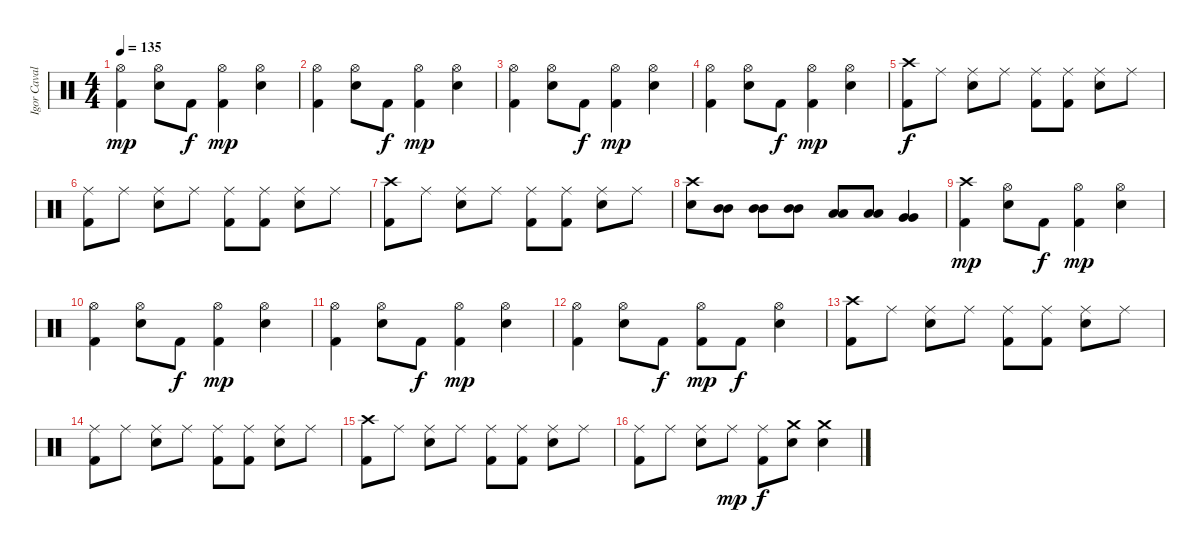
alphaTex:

\track ("Igor Cavalera" "Igor Caval") {instrument percussion}
\staff {score}
\articulation defaults
\ts (4 4)
\tempo 135
\clef neutral
\ks c
("Hi-Hat (open)" "Kick (hit) 2").4{dy mp} ("Hi-Hat (open)" "Snare (hit) 2").8 "Kick (hit) 2".8{dy f} ("Hi-Hat (open)" "Kick (hit) 2").4{dy mp} ("Hi-Hat (open)" "Snare (hit) 2").4 |
("Hi-Hat (open)" "Kick (hit) 2").4 ("Hi-Hat (open)" "Snare (hit) 2").8 "Kick (hit) 2".8{dy f} ("Hi-Hat (open)" "Kick (hit) 2").4{dy mp} ("Hi-Hat (open)" "Snare (hit) 2").4 |
("Hi-Hat (open)" "Kick (hit) 2").4 ("Hi-Hat (open)" "Snare (hit) 2").8 "Kick (hit) 2".8{dy f} ("Hi-Hat (open)" "Kick (hit) 2").4{dy mp} ("Hi-Hat (open)" "Snare (hit) 2").4 |
("Hi-Hat (open)" "Kick (hit) 2").4 ("Hi-Hat (open)" "Snare (hit) 2").8 "Kick (hit) 2".8{dy f} ("Hi-Hat (open)" "Kick (hit) 2").4{dy mp} ("Hi-Hat (open)" "Snare (hit) 2").4 |
("Crash high (hit)" "Kick (hit) 2").8{dy f} "Ride (middle)".8 ("Ride (middle)" "Snare (hit) 2").8 "Ride (middle)".8 ("Ride (middle)" "Kick (hit) 2").8 ("Ride (middle)" "Kick (hit) 2").8 ("Ride (middle)" "Snare (hit) 2").8 "Ride (middle)".8 |
("Ride (middle)" "Kick (hit) 2").8 "Ride (middle)".8 ("Ride (middle)" "Snare (hit) 2").8 "Ride (middle)".8 ("Ride (middle)" "Kick (hit) 2").8 ("Ride (middle)" "Kick (hit) 2").8 ("Ride (middle)" "Snare (hit) 2").8 "Ride (middle)".8 |
("Crash high (hit)" "Kick (hit) 2").8 "Ride (middle)".8 ("Ride (middle)" "Snare (hit) 2").8 "Ride (middle)".8 ("Ride (middle)" "Kick (hit) 2").8 ("Ride (middle)" "Kick (hit) 2").8 ("Ride (middle)" "Snare (hit) 2").8 "Ride (middle)".8 |
("Crash high (hit)" "Snare (hit) 2").8 ("Mid Tom (hit)" "Mid Tom (hit)").8 ("Mid Tom (hit)" "Mid Tom (hit)").8 ("Mid Tom (hit)" "Mid Tom (hit)").8 ("Low Tom (hit)" "Low Tom (hit)").8 ("Low Tom (hit)" "Low Tom (hit)").8 ("Very Low Tom (hit)" "Very Low Tom (hit)").4 |
("Crash high (hit)" "Kick (hit) 2").4{dy mp} ("Hi-Hat (open)" "Electric Snare (hit)").8 "Kick (hit) 2".8{dy f} ("Hi-Hat (open)" "Kick (hit) 2").4{dy mp} ("Hi-Hat (open)" "Electric Snare (hit)").4 |
("Hi-Hat (open)" "Kick (hit) 2").4 ("Hi-Hat (open)" "Electric Snare (hit)").8 "Kick (hit) 2".8{dy f} ("Hi-Hat (open)" "Kick (hit) 2").4{dy mp} ("Hi-Hat (open)" "Electric Snare (hit)").4 |
("Hi-Hat (open)" "Kick (hit) 2").4 ("Hi-Hat (open)" "Electric Snare (hit)").8 "Kick (hit) 2".8{dy f} ("Hi-Hat (open)" "Kick (hit) 2").4{dy mp} ("Hi-Hat (open)" "Electric Snare (hit)").4 |
("Hi-Hat (open)" "Kick (hit) 2").4 ("Hi-Hat (open)" "Electric Snare (hit)").8 "Kick (hit) 2".8{dy f} ("Hi-Hat (open)" "Kick (hit) 2").8{dy mp} "Kick (hit) 2".8{dy f} ("Hi-Hat (open)" "Snare (hit) 2").4 |
("Crash high (hit)" "Kick (hit) 2").8 "Ride (middle)".8 ("Ride (middle)" "Electric Snare (hit)").8 "Ride (middle)".8 ("Ride (middle)" "Kick (hit) 2").8 ("Ride (middle)" "Kick (hit) 2").8 ("Ride (middle)" "Electric Snare (hit)").8 "Ride (middle)".8 |
("Ride (middle)" "Kick (hit) 2").8 "Ride (middle)".8 ("Ride (middle)" "Electric Snare (hit)").8 "Ride (middle)".8 ("Ride (middle)" "Kick (hit) 2").8 ("Ride (middle)" "Kick (hit) 2").8 ("Ride (middle)" "Electric Snare (hit)").8 "Ride (middle)".8 |
("Crash high (hit)" "Kick (hit) 2").8 "Ride (middle)".8 ("Ride (middle)" "Electric Snare (hit)").8 "Ride (middle)".8 ("Ride (middle)" "Kick (hit) 2").8 ("Ride (middle)" "Kick (hit) 2").8 ("Ride (middle)" "Electric Snare (hit)").8 "Ride (middle)".8 |
("Ride (middle)" "Kick (hit) 2").8 "Ride (middle)".8 ("Ride (middle)" "Electric Snare (hit)").8 "Ride (middle)".8{dy mp} ("Ride (middle)" "Kick (hit) 2").8{dy f} ("Crash medium (hit)" "Electric Snare (hit)").8 ("Crash medium (hit)" "Electric Snare (hit)").4
